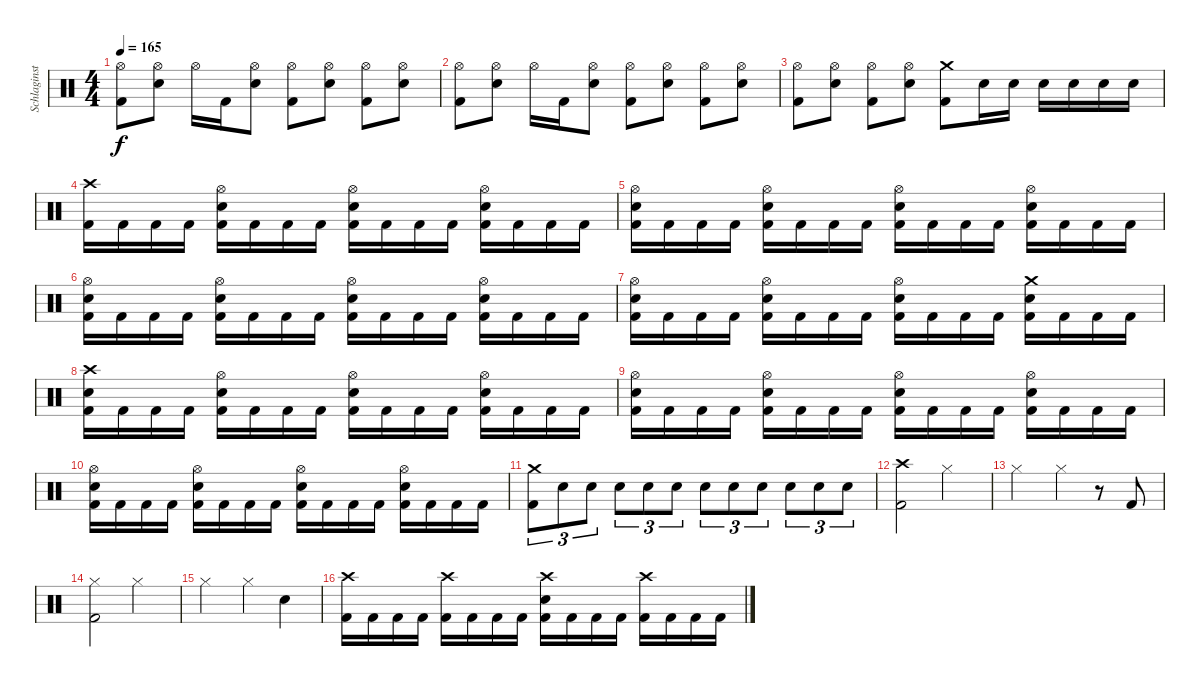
\track ("Schlaginstrumente - Auswahl" "Schlaginst") {instrument percussion}
\staff {score}
\articulation defaults
\ts (4 4)
\tempo 165
\clef neutral
\ks c
("Hi-Hat (open)" "Kick (hit) 2").8{dy f} ("Hi-Hat (open)" "Snare (hit) 2").8 "Hi-Hat (open)".16 "Kick (hit) 2".16 ("Hi-Hat (open)" "Snare (hit) 2").8 ("Hi-Hat (open)" "Kick (hit) 2").8 ("Hi-Hat (open)" "Snare (hit) 2").8 ("Hi-Hat (open)" "Kick (hit) 2").8 ("Hi-Hat (open)" "Snare (hit) 2").8 |
("Hi-Hat (open)" "Kick (hit) 2").8 ("Hi-Hat (open)" "Snare (hit) 2").8 "Hi-Hat (open)".16 "Kick (hit) 2".16 ("Hi-Hat (open)" "Snare (hit) 2").8 ("Hi-Hat (open)" "Kick (hit) 2").8 ("Hi-Hat (open)" "Snare (hit) 2").8 ("Hi-Hat (open)" "Kick (hit) 2").8 ("Hi-Hat (open)" "Snare (hit) 2").8 |
("Hi-Hat (open)" "Kick (hit) 2").8 ("Hi-Hat (open)" "Snare (hit) 2").8 ("Hi-Hat (open)" "Kick (hit) 2").8 ("Hi-Hat (open)" "Snare (hit) 2").8 ("Crash medium (hit)" "Kick (hit) 2").8 "Snare (hit) 2".16 "Snare (hit) 2".16 "Snare (hit) 2".16 "Snare (hit) 2".16 "Snare (hit) 2".16 "Snare (hit) 2".16 |
("Crash high (hit)" "Kick (hit) 2").16 "Kick (hit) 2".16 "Kick (hit) 2".16 "Kick (hit) 2".16 ("Hi-Hat (open)" "Snare (hit) 2" "Kick (hit) 2").16 "Kick (hit) 2".16 "Kick (hit) 2".16 "Kick (hit) 2".16 ("Hi-Hat (open)" "Snare (hit) 2" "Kick (hit) 2").16 "Kick (hit) 2".16 "Kick (hit) 2".16 "Kick (hit) 2".16 ("Hi-Hat (open)" "Snare (hit) 2" "Kick (hit) 2").16 "Kick (hit) 2".16 "Kick (hit) 2".16 "Kick (hit) 2".16 |
("Hi-Hat (open)" "Snare (hit) 2" "Kick (hit) 2").16 "Kick (hit) 2".16 "Kick (hit) 2".16 "Kick (hit) 2".16 ("Hi-Hat (open)" "Snare (hit) 2" "Kick (hit) 2").16 "Kick (hit) 2".16 "Kick (hit) 2".16 "Kick (hit) 2".16 ("Hi-Hat (open)" "Snare (hit) 2" "Kick (hit) 2").16 "Kick (hit) 2".16 "Kick (hit) 2".16 "Kick (hit) 2".16 ("Hi-Hat (open)" "Snare (hit) 2" "Kick (hit) 2").16 "Kick (hit) 2".16 "Kick (hit) 2".16 "Kick (hit) 2".16 |
("Hi-Hat (open)" "Snare (hit) 2" "Kick (hit) 2").16 "Kick (hit) 2".16 "Kick (hit) 2".16 "Kick (hit) 2".16 ("Hi-Hat (open)" "Snare (hit) 2" "Kick (hit) 2").16 "Kick (hit) 2".16 "Kick (hit) 2".16 "Kick (hit) 2".16 ("Hi-Hat (open)" "Snare (hit) 2" "Kick (hit) 2").16 "Kick (hit) 2".16 "Kick (hit) 2".16 "Kick (hit) 2".16 ("Hi-Hat (open)" "Snare (hit) 2" "Kick (hit) 2").16 "Kick (hit) 2".16 "Kick (hit) 2".16 "Kick (hit) 2".16 |
("Hi-Hat (open)" "Snare (hit) 2" "Kick (hit) 2").16 "Kick (hit) 2".16 "Kick (hit) 2".16 "Kick (hit) 2".16 ("Hi-Hat (open)" "Snare (hit) 2" "Kick (hit) 2").16 "Kick (hit) 2".16 "Kick (hit) 2".16 "Kick (hit) 2".16 ("Hi-Hat (open)" "Snare (hit) 2" "Kick (hit) 2").16 "Kick (hit) 2".16 "Kick (hit) 2".16 "Kick (hit) 2".16 ("Crash medium (hit)" "Snare (hit) 2" "Kick (hit) 2").16 "Kick (hit) 2".16 "Kick (hit) 2".16 "Kick (hit) 2".16 |
("Crash high (hit)" "Snare (hit) 2" "Kick (hit) 2").16 "Kick (hit) 2".16 "Kick (hit) 2".16 "Kick (hit) 2".16 ("Hi-Hat (open)" "Snare (hit) 2" "Kick (hit) 2").16 "Kick (hit) 2".16 "Kick (hit) 2".16 "Kick (hit) 2".16 ("Hi-Hat (open)" "Snare (hit) 2" "Kick (hit) 2").16 "Kick (hit) 2".16 "Kick (hit) 2".16 "Kick (hit) 2".16 ("Hi-Hat (open)" "Snare (hit) 2" "Kick (hit) 2").16 "Kick (hit) 2".16 "Kick (hit) 2".16 "Kick (hit) 2".16 |
("Hi-Hat (open)" "Snare (hit) 2" "Kick (hit) 2").16 "Kick (hit) 2".16 "Kick (hit) 2".16 "Kick (hit) 2".16 ("Hi-Hat (open)" "Snare (hit) 2" "Kick (hit) 2").16 "Kick (hit) 2".16 "Kick (hit) 2".16 "Kick (hit) 2".16 ("Hi-Hat (open)" "Snare (hit) 2" "Kick (hit) 2").16 "Kick (hit) 2".16 "Kick (hit) 2".16 "Kick (hit) 2".16 ("Hi-Hat (open)" "Snare (hit) 2" "Kick (hit) 2").16 "Kick (hit) 2".16 "Kick (hit) 2".16 "Kick (hit) 2".16 |
("Hi-Hat (open)" "Snare (hit) 2" "Kick (hit) 2").16 "Kick (hit) 2".16 "Kick (hit) 2".16 "Kick (hit) 2".16 ("Hi-Hat (open)" "Snare (hit) 2" "Kick (hit) 2").16 "Kick (hit) 2".16 "Kick (hit) 2".16 "Kick (hit) 2".16 ("Hi-Hat (open)" "Snare (hit) 2" "Kick (hit) 2").16 "Kick (hit) 2".16 "Kick (hit) 2".16 "Kick (hit) 2".16 ("Hi-Hat (open)" "Snare (hit) 2" "Kick (hit) 2").16 "Kick (hit) 2".16 "Kick (hit) 2".16 "Kick (hit) 2".16 |
("Crash medium (hit)" "Kick (hit) 2").8{tu (3 2)} "Snare (hit) 2".8{tu (3 2)} "Snare (hit) 2".8{tu (3 2)} "Snare (hit) 2".8{tu (3 2)} "Snare (hit) 2".8{tu (3 2)} "Snare (hit) 2".8{tu (3 2)} "Snare (hit) 2".8{tu (3 2)} "Snare (hit) 2".8{tu (3 2)} "Snare (hit) 2".8{tu (3 2)} "Snare (hit) 2".8{tu (3 2)} "Snare (hit) 2".8{tu (3 2)} "Snare (hit) 2".8{tu (3 2)} |
("Crash high (hit)" "Kick (hit) 2").2 "Hi-Hat (closed)".2 |
"Hi-Hat (closed)".2 "Hi-Hat (closed)".4 r.8 "Kick (hit) 2".8 |
("Hi-Hat (closed)" "Kick (hit) 2").2 "Hi-Hat (closed)".2 |
"Hi-Hat (closed)".2 "Hi-Hat (closed)".4 "Snare (hit) 2".4 |
("Crash high (hit)" "Kick (hit) 2").16 "Kick (hit) 2".16 "Kick (hit) 2".16 "Kick (hit) 2".16 ("Crash high (hit)" "Kick (hit) 2").16 "Kick (hit) 2".16 "Kick (hit) 2".16 "Kick (hit) 2".16 ("Crash high (hit)" "Snare (hit) 2" "Kick (hit) 2").16 "Kick (hit) 2".16 "Kick (hit) 2".16 "Kick (hit) 2".16 ("Crash high (hit)" "Kick (hit) 2").16 "Kick (hit) 2".16 "Kick (hit) 2".16 "Kick (hit) 2".16
